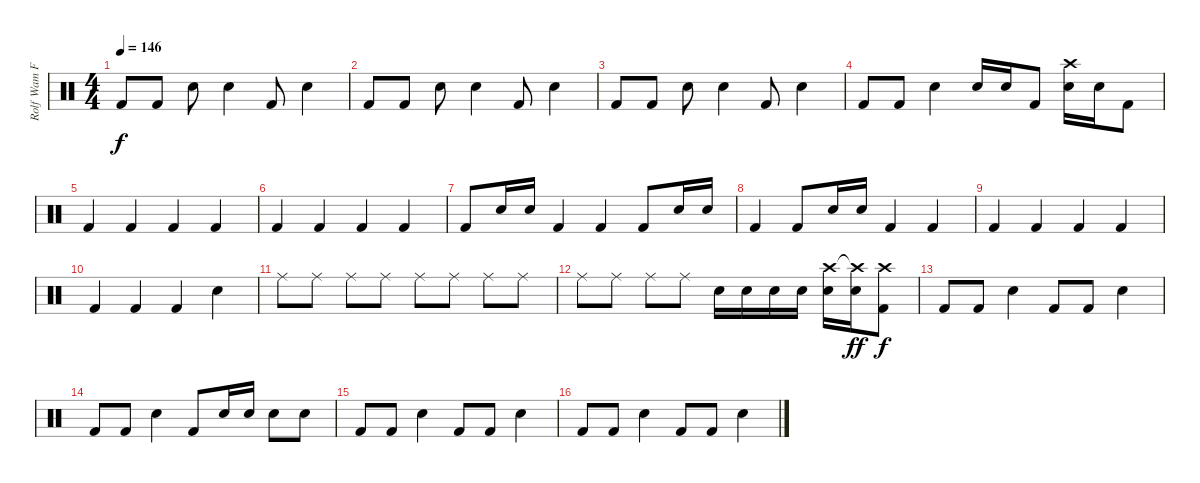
\track ("Rolf Wam Fjell" "Rolf Wam F") {instrument percussion}
\staff {score}
\articulation defaults
\ts (4 4)
\tempo 146
\clef neutral
\ks c "Kick (hit) 2".8{dy f} "Kick (hit) 2".8 "Electric Snare (hit)".8 "Electric Snare (hit)".4 "Kick (hit) 2".8 "Electric Snare (hit)".4
|
"Kick (hit) 2".8 "Kick (hit) 2".8 "Electric Snare (hit)".8 "Electric Snare (hit)".4 "Kick (hit) 2".8 "Electric Snare (hit)".4 |
"Kick (hit) 2".8 "Kick (hit) 2".8 "Electric Snare (hit)".8 "Electric Snare (hit)".4 "Kick (hit) 2".8 "Electric Snare (hit)".4 |
"Kick (hit) 2".8 "Kick (hit) 2".8 "Electric Snare (hit)".4 "Electric Snare (hit)".16 "Electric Snare (hit)".16 "Kick (hit) 2".8 ("Electric Snare (hit)" "Crash high (hit)").16 "Electric Snare (hit)".16 "Kick (hit) 2".8 |
"Kick (hit) 2".4 "Kick (hit) 2".4 "Kick (hit) 2".4 "Kick (hit) 2".4 |
"Kick (hit) 2".4 "Kick (hit) 2".4 "Kick (hit) 2".4 "Kick (hit) 2".4 |
"Kick (hit) 2".8 "Electric Snare (hit)".16 "Electric Snare (hit)".16 "Kick (hit) 2".4 "Kick (hit) 2".4 "Kick (hit) 2".8 "Electric Snare (hit)".16 "Electric Snare (hit)".16 |
"Kick (hit) 2".4 "Kick (hit) 2".8 "Electric Snare (hit)".16 "Electric Snare (hit)".16 "Kick (hit) 2".4 "Kick (hit) 2".4 |
"Kick (hit) 2".4 "Kick (hit) 2".4 "Kick (hit) 2".4 "Kick (hit) 2".4 |
"Kick (hit) 2".4 "Kick (hit) 2".4 "Kick (hit) 2".4 "Electric Snare (hit)".4 |
"Ride (middle)".8 "Ride (middle)".8 "Ride (middle)".8 "Ride (middle)".8 "Ride (middle)".8 "Ride (middle)".8 "Ride (middle)".8 "Ride (middle)".8 |
"Ride (middle)".8 "Ride (middle)".8 "Ride (middle)".8 "Ride (middle)".8 "Electric Snare (hit)".16 "Electric Snare (hit)".16 "Electric Snare (hit)".16 "Electric Snare (hit)".16 ("Electric Snare (hit)" "Crash high (hit)").16 ("Electric Snare (hit)" "Crash high (hit)"{t}).16{dy ff} ("Kick (hit) 2" "Crash high (hit)").8{dy f} |
"Kick (hit) 2".8 "Kick (hit) 2".8 "Electric Snare (hit)".4 "Kick (hit) 2".8 "Kick (hit) 2".8 "Electric Snare (hit)".4 |
"Kick (hit) 2".8 "Kick (hit) 2".8 "Electric Snare (hit)".4 "Kick (hit) 2".8 "Electric Snare (hit)".16 "Electric Snare (hit)".16 "Electric Snare (hit)".8 "Electric Snare (hit)".8 |
"Kick (hit) 2".8 "Kick (hit) 2".8 "Electric Snare (hit)".4 "Kick (hit) 2".8 "Kick (hit) 2".8 "Electric Snare (hit)".4 |
"Kick (hit) 2".8 "Kick (hit) 2".8 "Electric Snare (hit)".4 "Kick (hit) 2".8 "Kick (hit) 2".8 "Electric Snare (hit)".4
